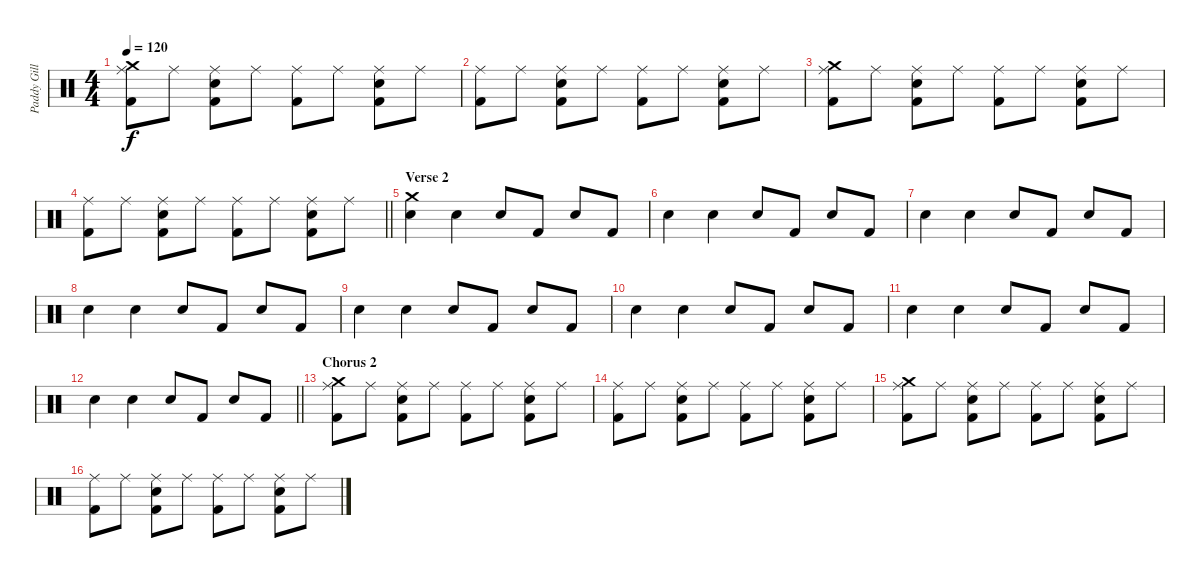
\track ("Paddy Gillespie" "Paddy Gill") {instrument percussion}
\staff {score}
\articulation defaults
\ts (4 4)
\tempo 120
\clef neutral
\ks c
("Kick (hit) 2" "Crash medium (hit)" "Ride (middle)").8{dy f} "Ride (middle)".8 ("Kick (hit) 2" "Ride (middle)" "Snare (hit) 2").8 "Ride (middle)".8 ("Kick (hit) 2" "Ride (middle)").8 "Ride (middle)".8 ("Kick (hit) 2" "Ride (middle)" "Snare (hit) 2").8 "Ride (middle)".8 |
("Kick (hit) 2" "Ride (middle)").8 "Ride (middle)".8 ("Kick (hit) 2" "Ride (middle)" "Snare (hit) 2").8 "Ride (middle)".8 ("Kick (hit) 2" "Ride (middle)").8 "Ride (middle)".8 ("Kick (hit) 2" "Ride (middle)" "Snare (hit) 2").8 "Ride (middle)".8 |
("Kick (hit) 2" "Crash medium (hit)" "Ride (middle)").8 "Ride (middle)".8 ("Kick (hit) 2" "Ride (middle)" "Snare (hit) 2").8 "Ride (middle)".8 ("Kick (hit) 2" "Ride (middle)").8 "Ride (middle)".8 ("Kick (hit) 2" "Ride (middle)" "Snare (hit) 2").8 "Ride (middle)".8 |
\barLineRight lightlight
("Kick (hit) 2" "Ride (middle)").8 "Ride (middle)".8 ("Kick (hit) 2" "Ride (middle)" "Snare (hit) 2").8 "Ride (middle)".8 ("Kick (hit) 2" "Ride (middle)").8 "Ride (middle)".8 ("Kick (hit) 2" "Ride (middle)" "Snare (hit) 2").8 "Ride (middle)".8 |
\section ("" "Verse 2")
("Snare (hit) 2" "Crash medium (hit)").4 "Snare (hit) 2".4 "Snare (hit) 2".8 "Kick (hit) 2".8 "Snare (hit) 2".8 "Kick (hit) 2".8 |
"Snare (hit) 2".4 "Snare (hit) 2".4 "Snare (hit) 2".8 "Kick (hit) 2".8 "Snare (hit) 2".8 "Kick (hit) 2".8 |
"Snare (hit) 2".4 "Snare (hit) 2".4 "Snare (hit) 2".8 "Kick (hit) 2".8 "Snare (hit) 2".8 "Kick (hit) 2".8 |
"Snare (hit) 2".4 "Snare (hit) 2".4 "Snare (hit) 2".8 "Kick (hit) 2".8 "Snare (hit) 2".8 "Kick (hit) 2".8 |
"Snare (hit) 2".4 "Snare (hit) 2".4 "Snare (hit) 2".8 "Kick (hit) 2".8 "Snare (hit) 2".8 "Kick (hit) 2".8 |
"Snare (hit) 2".4 "Snare (hit) 2".4 "Snare (hit) 2".8 "Kick (hit) 2".8 "Snare (hit) 2".8 "Kick (hit) 2".8 |
"Snare (hit) 2".4 "Snare (hit) 2".4 "Snare (hit) 2".8 "Kick (hit) 2".8 "Snare (hit) 2".8 "Kick (hit) 2".8 |
\barLineRight lightlight "Snare (hit) 2".4 "Snare (hit) 2".4 "Snare (hit) 2".8 "Kick (hit) 2".8 "Snare (hit) 2".8 "Kick (hit) 2".8
|
\section ("" "Chorus 2")
("Kick (hit) 2" "Crash medium (hit)" "Ride (middle)").8 "Ride (middle)".8 ("Kick (hit) 2" "Ride (middle)" "Snare (hit) 2").8 "Ride (middle)".8 ("Kick (hit) 2" "Ride (middle)").8 "Ride (middle)".8 ("Kick (hit) 2" "Ride (middle)" "Snare (hit) 2").8 "Ride (middle)".8 |
("Kick (hit) 2" "Ride (middle)").8 "Ride (middle)".8 ("Kick (hit) 2" "Ride (middle)" "Snare (hit) 2").8 "Ride (middle)".8 ("Kick (hit) 2" "Ride (middle)").8 "Ride (middle)".8 ("Kick (hit) 2" "Ride (middle)" "Snare (hit) 2").8 "Ride (middle)".8 |
("Kick (hit) 2" "Crash medium (hit)" "Ride (middle)").8 "Ride (middle)".8 ("Kick (hit) 2" "Ride (middle)" "Snare (hit) 2").8 "Ride (middle)".8 ("Kick (hit) 2" "Ride (middle)").8 "Ride (middle)".8 ("Kick (hit) 2" "Ride (middle)" "Snare (hit) 2").8 "Ride (middle)".8 |
("Kick (hit) 2" "Ride (middle)").8 "Ride (middle)".8 ("Kick (hit) 2" "Ride (middle)" "Snare (hit) 2").8 "Ride (middle)".8 ("Kick (hit) 2" "Ride (middle)").8 "Ride (middle)".8 ("Kick (hit) 2" "Ride (middle)" "Snare (hit) 2").8 "Ride (middle)".8
